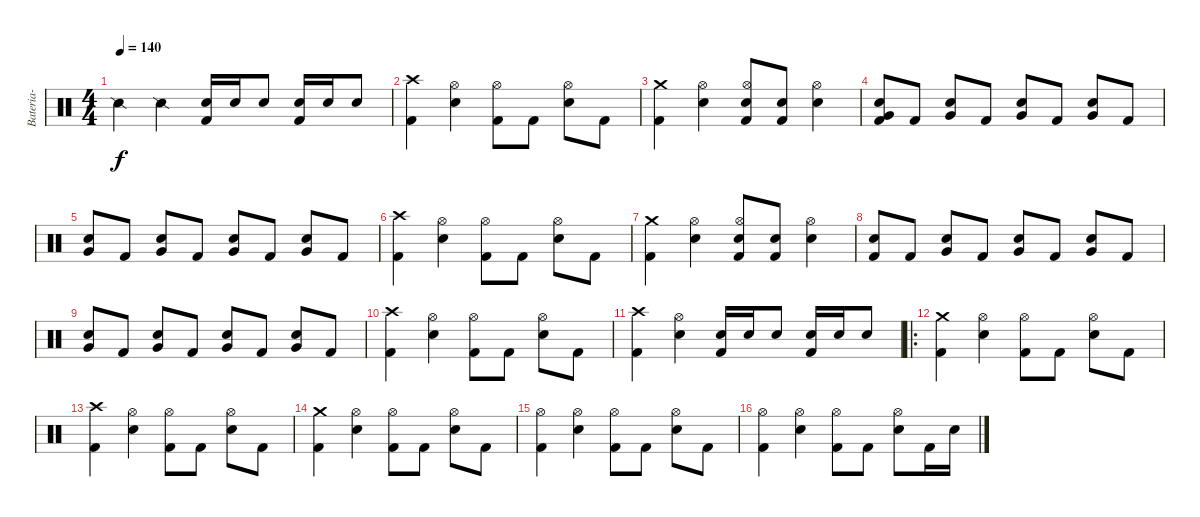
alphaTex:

\track ("Bateria-" "Bateria-") {instrument percussion}
\staff {score}
\articulation defaults
\ts (4 4)
\tempo 140
\clef neutral
\ks c "Snare (side stick) 2".4{dy f} "Snare (side stick) 2".4
("Electric Snare (hit)" "Kick (hit) 2").16 "Electric Snare (hit)".16 "Electric Snare (hit)".8 ("Electric Snare (hit)" "Kick (hit) 2").16 "Electric Snare (hit)".16 "Electric Snare (hit)".8 |
("Crash high (hit)" "Kick (hit) 2").4 ("Hi-Hat (open)" "Electric Snare (hit)").4 ("Hi-Hat (open)" "Kick (hit) 2").8 "Kick (hit) 2".8 ("Hi-Hat (open)" "Electric Snare (hit)").8 "Kick (hit) 2".8 |
("Crash medium (hit)" "Kick (hit) 2").4 ("Hi-Hat (open)" "Snare (hit) 2").4 ("Hi-Hat (open)" "Kick (hit) 2" "Snare (hit) 2").8 ("Kick (hit) 2" "Snare (hit) 2").8 ("Hi-Hat (open)" "Snare (hit) 2").4 |
("Very Low Tom (hit)" "Kick (hit) 2" "Electric Snare (hit)").8 "Kick (hit) 2".8 ("Very Low Tom (hit)" "Electric Snare (hit)").8 "Kick (hit) 2".8 ("Very Low Tom (hit)" "Electric Snare (hit)").8 "Kick (hit) 2".8 ("Very Low Tom (hit)" "Electric Snare (hit)").8 "Kick (hit) 2".8 |
("Very Low Tom (hit)" "Electric Snare (hit)").8 "Kick (hit) 2".8 ("Very Low Tom (hit)" "Electric Snare (hit)").8 "Kick (hit) 2".8 ("Very Low Tom (hit)" "Electric Snare (hit)").8 "Kick (hit) 2".8 ("Very Low Tom (hit)" "Electric Snare (hit)").8 "Kick (hit) 2".8 |
("Crash high (hit)" "Kick (hit) 2").4 ("Hi-Hat (open)" "Electric Snare (hit)").4 ("Hi-Hat (open)" "Kick (hit) 2").8 "Kick (hit) 2".8 ("Hi-Hat (open)" "Electric Snare (hit)").8 "Kick (hit) 2".8 |
("Crash medium (hit)" "Kick (hit) 2").4 ("Hi-Hat (open)" "Snare (hit) 2").4 ("Hi-Hat (open)" "Kick (hit) 2" "Snare (hit) 2").8 ("Kick (hit) 2" "Snare (hit) 2").8 ("Hi-Hat (open)" "Snare (hit) 2").4 |
("Kick (hit) 2" "Electric Snare (hit)").8 "Kick (hit) 2".8 ("Very Low Tom (hit)" "Electric Snare (hit)").8 "Kick (hit) 2".8 ("Very Low Tom (hit)" "Electric Snare (hit)").8 "Kick (hit) 2".8 ("Very Low Tom (hit)" "Electric Snare (hit)").8 "Kick (hit) 2".8 |
("Very Low Tom (hit)" "Electric Snare (hit)").8 "Kick (hit) 2".8 ("Very Low Tom (hit)" "Electric Snare (hit)").8 "Kick (hit) 2".8 ("Very Low Tom (hit)" "Electric Snare (hit)").8 "Kick (hit) 2".8 ("Very Low Tom (hit)" "Electric Snare (hit)").8 "Kick (hit) 2".8 |
("Crash high (hit)" "Kick (hit) 2").4 ("Hi-Hat (open)" "Electric Snare (hit)").4 ("Hi-Hat (open)" "Kick (hit) 2").8 "Kick (hit) 2".8 ("Hi-Hat (open)" "Electric Snare (hit)").8 "Kick (hit) 2".8 |
("Crash high (hit)" "Kick (hit) 2").4 ("Hi-Hat (open)" "Electric Snare (hit)").4 ("Electric Snare (hit)" "Kick (hit) 2").16 "Electric Snare (hit)".16 "Electric Snare (hit)".8 ("Electric Snare (hit)" "Kick (hit) 2").16 "Electric Snare (hit)".16 "Electric Snare (hit)".8 |
\ro
("Crash medium (hit)" "Kick (hit) 2").4 ("Hi-Hat (open)" "Electric Snare (hit)").4 ("Hi-Hat (open)" "Kick (hit) 2").8 "Kick (hit) 2".8 ("Hi-Hat (open)" "Electric Snare (hit)").8 "Kick (hit) 2".8 |
("Crash high (hit)" "Kick (hit) 2").4 ("Hi-Hat (open)" "Electric Snare (hit)").4 ("Hi-Hat (open)" "Kick (hit) 2").8 "Kick (hit) 2".8 ("Hi-Hat (open)" "Electric Snare (hit)").8 "Kick (hit) 2".8 |
("Crash medium (hit)" "Kick (hit) 2").4 ("Hi-Hat (open)" "Electric Snare (hit)").4 ("Hi-Hat (open)" "Kick (hit) 2").8 "Kick (hit) 2".8 ("Hi-Hat (open)" "Electric Snare (hit)").8 "Kick (hit) 2".8 |
("Hi-Hat (open)" "Kick (hit) 2").4 ("Hi-Hat (open)" "Electric Snare (hit)").4 ("Hi-Hat (open)" "Kick (hit) 2").8 "Kick (hit) 2".8 ("Hi-Hat (open)" "Electric Snare (hit)").8 "Kick (hit) 2".8 |
("Hi-Hat (open)" "Kick (hit) 2").4 ("Hi-Hat (open)" "Electric Snare (hit)").4 ("Hi-Hat (open)" "Kick (hit) 2").8 "Kick (hit) 2".8 ("Hi-Hat (open)" "Electric Snare (hit)").8 "Kick (hit) 2".16 "Electric Snare (hit)".16
